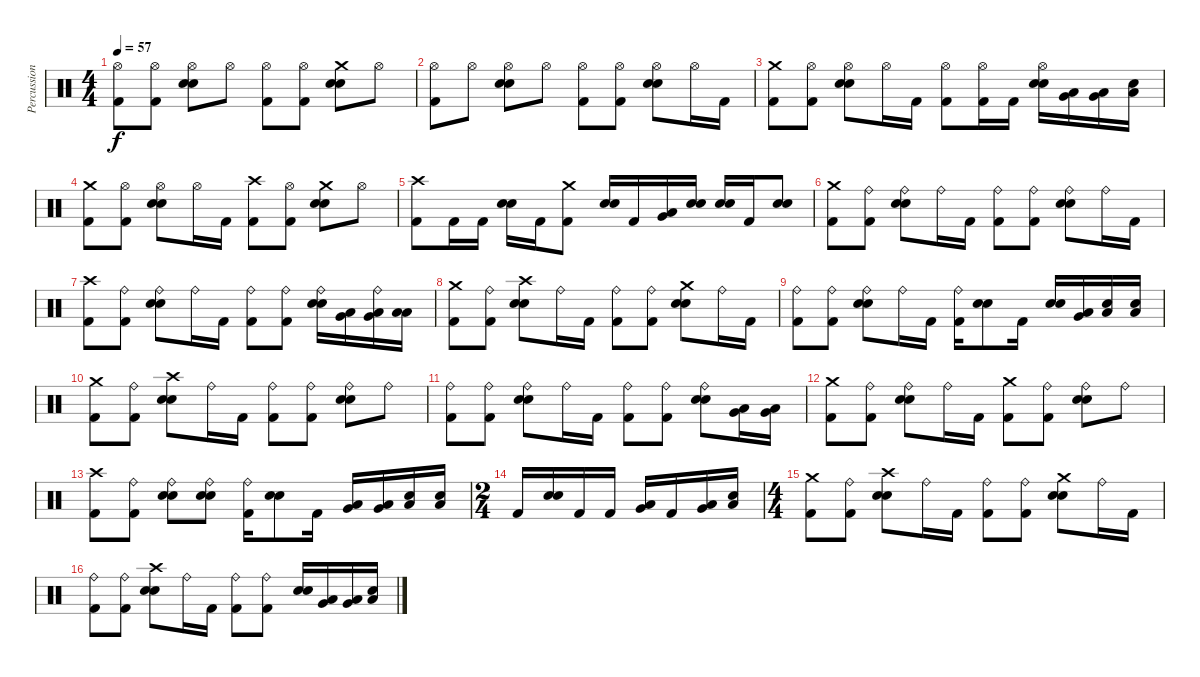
\track ("Percussion" "Percussion") {instrument percussion}
\staff {score}
\articulation defaults
\ts (4 4)
\tempo 57
\clef neutral
\ks c
("Hi-Hat (open)" "Kick (hit) 2").8{dy f} ("Hi-Hat (open)" "Kick (hit) 2").8 ("Hi-Hat (open)" "Electric Snare (hit)" "Metronome (bell)").8 "Hi-Hat (open)".8 ("Hi-Hat (open)" "Kick (hit) 2").8 ("Hi-Hat (open)" "Kick (hit) 2").8 ("Crash medium (hit)" "Electric Snare (hit)" "Metronome (bell)").8 "Hi-Hat (open)".8 |
("Hi-Hat (open)" "Kick (hit) 2").8 "Hi-Hat (open)".8 ("Hi-Hat (open)" "Electric Snare (hit)" "Metronome (bell)").8 "Hi-Hat (open)".8 ("Hi-Hat (open)" "Kick (hit) 2").8 ("Hi-Hat (open)" "Kick (hit) 2").8 ("Hi-Hat (open)" "Electric Snare (hit)" "Metronome (bell)").8 "Hi-Hat (open)".16 "Kick (hit) 2".16 |
("Crash medium (hit)" "Kick (hit) 2").8 ("Hi-Hat (open)" "Kick (hit) 2").8 ("Hi-Hat (open)" "Electric Snare (hit)" "Metronome (bell)").8 "Hi-Hat (open)".16 "Kick (hit) 2".16 ("Hi-Hat (open)" "Kick (hit) 2").8 ("Hi-Hat (open)" "Kick (hit) 2").16 "Kick (hit) 2".16 ("Hi-Hat (open)" "Electric Snare (hit)" "Metronome (bell)").16 ("Low Tom (hit)" "Very Low Tom (hit)").16 ("Very Low Tom (hit)" "Low Floor Tom (hit)").16 ("Low Floor Tom (hit)" "Snare (hit)").16 |
("Crash medium (hit)" "Kick (hit) 2").8 ("Hi-Hat (open)" "Kick (hit) 2").8 ("Hi-Hat (open)" "Electric Snare (hit)" "Metronome (bell)").8 "Hi-Hat (open)".16 "Kick (hit) 2".16 ("Crash high (hit)" "Kick (hit) 2").8 ("Hi-Hat (open)" "Kick (hit) 2").8 ("Crash medium (hit)" "Electric Snare (hit)" "Metronome (bell)").8 "Hi-Hat (open)".8 |
("Crash high (hit)" "Kick (hit) 2").8 "Kick (hit) 2".16 "Kick (hit) 2".16 ("Electric Snare (hit)" "Metronome (bell)").16 "Kick (hit) 2".16 ("Crash medium (hit)" "Kick (hit) 2").8 ("Electric Snare (hit)" "Metronome (bell)").16 "Kick (hit) 2".16 ("Very Low Tom (hit)" "Low Floor Tom (hit)").16 ("Electric Snare (hit)" "Metronome (bell)").16 ("Electric Snare (hit)" "Metronome (bell)").16 "Kick (hit) 2".16 ("Electric Snare (hit)" "Metronome (bell)").8 |
("Crash medium (hit)" "Kick (hit) 2").8 ("Ride (bell)" "Kick (hit) 2").8 ("Ride (bell)" "Electric Snare (hit)" "Metronome (bell)").8 "Ride (bell)".16 "Kick (hit) 2".16 ("Ride (bell)" "Kick (hit) 2").8 ("Ride (bell)" "Kick (hit) 2").8 ("Ride (bell)" "Electric Snare (hit)" "Metronome (bell)").8 "Ride (bell)".16 "Kick (hit) 2".16 |
("Crash high (hit)" "Kick (hit) 2").8 ("Ride (bell)" "Kick (hit) 2").8 ("Ride (bell)" "Electric Snare (hit)" "Metronome (bell)").8 "Ride (bell)".16 "Kick (hit) 2".16 ("Ride (bell)" "Kick (hit) 2").8 ("Ride (bell)" "Kick (hit) 2").8 ("Ride (bell)" "Electric Snare (hit)" "Metronome (bell)").16 ("Low Tom (hit)" "Very Low Tom (hit)").16 ("Ride (bell)" "Very Low Tom (hit)" "Low Floor Tom (hit)").16 ("Low Floor Tom (hit)" "Low Floor Tom (hit)").16 |
("Crash medium (hit)" "Kick (hit) 2").8 ("Ride (bell)" "Kick (hit) 2").8 ("Crash high (hit)" "Electric Snare (hit)" "Metronome (bell)").8 "Ride (bell)".16 "Kick (hit) 2".16 ("Ride (bell)" "Kick (hit) 2").8 ("Ride (bell)" "Kick (hit) 2").8 ("Crash medium (hit)" "Electric Snare (hit)" "Metronome (bell)").8 "Ride (bell)".16 "Kick (hit) 2".16 |
("Ride (bell)" "Kick (hit) 2").8 ("Ride (bell)" "Kick (hit) 2").8 ("Ride (bell)" "Electric Snare (hit)" "Metronome (bell)").8 "Ride (bell)".16 "Kick (hit) 2".16 ("Ride (bell)" "Kick (hit) 2").16 ("Electric Snare (hit)" "Metronome (bell)").8 "Kick (hit) 2".16 ("Electric Snare (hit)" "Metronome (bell)").16 ("Very Low Tom (hit)" "Low Floor Tom (hit)").16 ("Low Floor Tom (hit)" "Snare (hit)").16 ("Low Floor Tom (hit)" "Snare (hit)").16 |
("Crash medium (hit)" "Kick (hit) 2").8 ("Ride (bell)" "Kick (hit) 2").8 ("Crash high (hit)" "Electric Snare (hit)" "Metronome (bell)").8 "Ride (bell)".16 "Kick (hit) 2".16 ("Ride (bell)" "Kick (hit) 2").8 ("Ride (bell)" "Kick (hit) 2").8 ("Ride (bell)" "Electric Snare (hit)" "Metronome (bell)").8 "Ride (bell)".8 |
("Ride (bell)" "Kick (hit) 2").8 ("Ride (bell)" "Kick (hit) 2").8 ("Ride (bell)" "Electric Snare (hit)" "Metronome (bell)").8 "Ride (bell)".16 "Kick (hit) 2".16 ("Ride (bell)" "Kick (hit) 2").8 ("Ride (bell)" "Kick (hit) 2").8 ("Ride (bell)" "Electric Snare (hit)" "Metronome (bell)").8 ("Low Tom (hit)" "Very Low Tom (hit)").16 ("Very Low Tom (hit)" "Low Floor Tom (hit)").16 |
("Crash medium (hit)" "Kick (hit) 2").8 ("Ride (bell)" "Kick (hit) 2").8 ("Ride (bell)" "Electric Snare (hit)" "Metronome (bell)").8 "Ride (bell)".16 "Kick (hit) 2".16 ("Crash medium (hit)" "Kick (hit) 2").8 ("Ride (bell)" "Kick (hit) 2").8 ("Ride (bell)" "Electric Snare (hit)" "Metronome (bell)").8 "Ride (bell)".8 |
("Crash high (hit)" "Kick (hit) 2").8 ("Ride (bell)" "Kick (hit) 2").8 ("Ride (bell)" "Electric Snare (hit)" "Metronome (bell)").8 ("Ride (bell)" "Electric Snare (hit)" "Metronome (bell)").8 ("Ride (bell)" "Kick (hit) 2").16 ("Electric Snare (hit)" "Metronome (bell)").8 "Kick (hit) 2".16 ("Low Tom (hit)" "Very Low Tom (hit)").16 ("Very Low Tom (hit)" "Low Floor Tom (hit)").16 ("Low Floor Tom (hit)" "Snare (hit)").16 ("Low Floor Tom (hit)" "Snare (hit)").16 |
\ts (2 4)
"Kick (hit) 2".16 ("Electric Snare (hit)" "Metronome (bell)").16 "Kick (hit) 2".16 "Kick (hit) 2".16 ("Low Tom (hit)" "Very Low Tom (hit)").16 "Kick (hit) 2".16 ("Very Low Tom (hit)" "Low Floor Tom (hit)").16 ("Low Floor Tom (hit)" "Snare (hit)").16 |
\ts (4 4)
("Crash medium (hit)" "Kick (hit) 2").8 ("Ride (bell)" "Kick (hit) 2").8 ("Crash high (hit)" "Electric Snare (hit)" "Metronome (bell)").8 "Ride (bell)".16 "Kick (hit) 2".16 ("Ride (bell)" "Kick (hit) 2").8 ("Ride (bell)" "Kick (hit) 2").8 ("Crash medium (hit)" "Electric Snare (hit)" "Metronome (bell)").8 "Ride (bell)".16 "Kick (hit) 2".16 |
("Ride (bell)" "Kick (hit) 2").8 ("Ride (bell)" "Kick (hit) 2").8 ("Crash high (hit)" "Electric Snare (hit)" "Metronome (bell)").8 "Ride (bell)".16 "Kick (hit) 2".16 ("Ride (bell)" "Kick (hit) 2").8 ("Ride (bell)" "Kick (hit) 2").8 ("Electric Snare (hit)" "Metronome (bell)").16 ("Low Tom (hit)" "Very Low Tom (hit)").16 ("Very Low Tom (hit)" "Low Floor Tom (hit)").16 ("Low Floor Tom (hit)" "Snare (hit)").16
